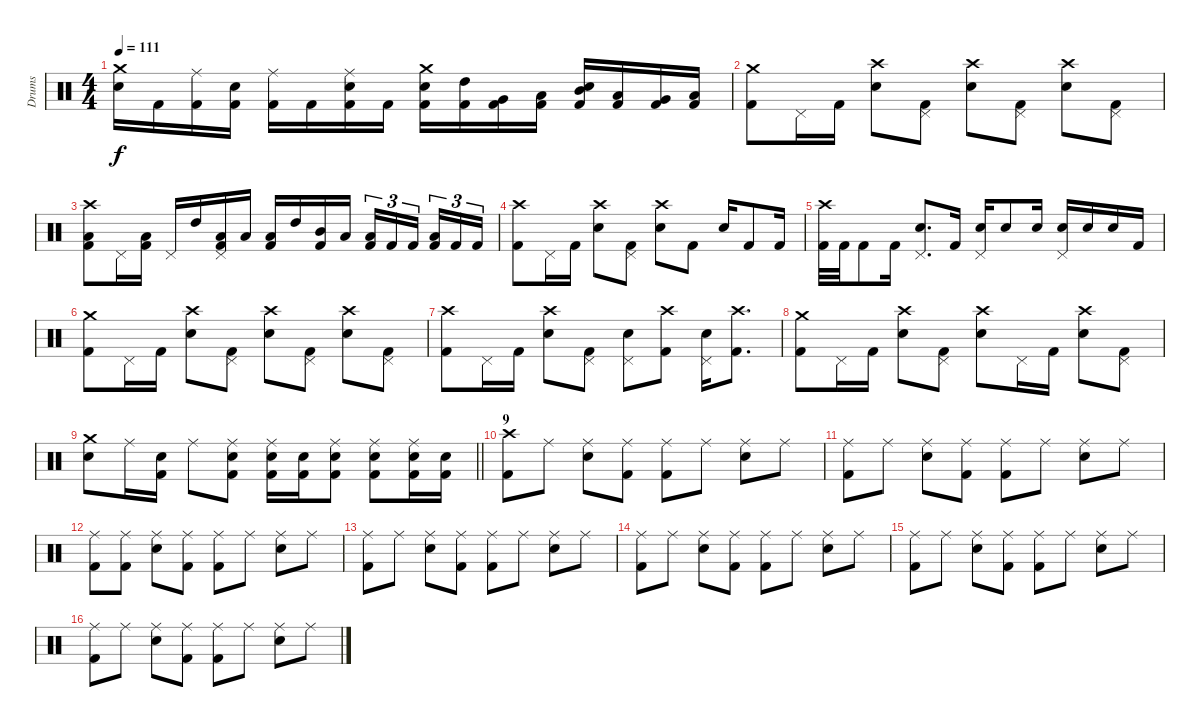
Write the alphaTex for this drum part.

\track ("Drums" "Drums") {instrument percussion}
\staff {score}
\articulation defaults
\ts (4 4)
\tempo 111
\clef neutral
\ks c
("Crash medium (hit)" "Snare (hit) 2").16{dy f} "Kick (hit) 2".16 ("Ride (middle)" "Kick (hit) 2").16 ("Snare (hit) 2" "Kick (hit) 2").16 ("Ride (middle)" "Kick (hit) 2").16 "Kick (hit) 2".16 ("Ride (middle)" "Snare (hit) 2" "Kick (hit) 2").16 "Kick (hit) 2".16 ("Crash medium (hit)" "Snare (hit) 2" "Kick (hit) 2").16 ("High Tom (hit)" "Kick (hit) 2").16 ("Very Low Tom (hit)" "Kick (hit) 2").16 ("Low Floor Tom (hit)" "Kick (hit) 2").16 ("Mid Tom (hit)" "Snare (hit) 2" "Kick (hit) 2").16 ("Low Tom (hit)" "Kick (hit) 2").16 ("Very Low Tom (hit)" "Kick (hit) 2").16 ("Low Floor Tom (hit)" "Kick (hit) 2").16 |
("Crash medium (hit)" "Kick (hit) 2").8 "Pedal Hi-Hat (hit)".16 "Kick (hit) 2".16 ("Crash high (hit)" "Snare (hit) 2").8 ("Pedal Hi-Hat (hit)" "Kick (hit) 2").8 ("Crash high (hit)" "Snare (hit) 2").8 ("Pedal Hi-Hat (hit)" "Kick (hit) 2").8 ("Crash high (hit)" "Snare (hit) 2").8 ("Pedal Hi-Hat (hit)" "Kick (hit) 2").8 |
("Crash high (hit)" "Low Floor Tom (hit)" "Kick (hit) 2").8 "Pedal Hi-Hat (hit)".16 ("Low Floor Tom (hit)" "Kick (hit) 2").16 "Pedal Hi-Hat (hit)".16 "High Tom (hit)".16 ("Pedal Hi-Hat (hit)" "Low Floor Tom (hit)" "Kick (hit) 2").16 "Low Tom (hit)".16 ("Low Floor Tom (hit)" "Kick (hit) 2").16 "High Tom (hit)".16 ("Mid Tom (hit)" "Kick (hit) 2").16 "Low Tom (hit)".16 ("Low Floor Tom (hit)" "Kick (hit) 2").16{tu (3 2)} "Kick (hit) 2".16{tu (3 2)} "Kick (hit) 2".16{tu (3 2) beam splitsecondary} ("Low Floor Tom (hit)" "Kick (hit) 2").16{tu (3 2)} "Kick (hit) 2".16{tu (3 2)} "Kick (hit) 2".16{tu (3 2)} |
("Crash high (hit)" "Kick (hit) 2").8 "Pedal Hi-Hat (hit)".16 "Kick (hit) 2".16 ("Crash high (hit)" "Snare (hit) 2").8 ("Pedal Hi-Hat (hit)" "Kick (hit) 2").8 ("Crash high (hit)" "Snare (hit) 2").8 "Kick (hit) 2".8 "Snare (hit) 2".16 "Kick (hit) 2".8 "Kick (hit) 2".16 |
("Crash high (hit)" "Kick (hit) 2").32 "Kick (hit) 2".32 "Kick (hit) 2".8 "Kick (hit) 2".16 ("Pedal Hi-Hat (hit)" "Snare (hit) 2").8{d} "Kick (hit) 2".16 ("Pedal Hi-Hat (hit)" "Snare (hit) 2").16 "Snare (hit) 2".8 "Snare (hit) 2".16 ("Pedal Hi-Hat (hit)" "Snare (hit) 2").16 "Snare (hit) 2".16 "Snare (hit) 2".16 "Kick (hit) 2".16 |
("Crash medium (hit)" "Kick (hit) 2").8 "Pedal Hi-Hat (hit)".16 "Kick (hit) 2".16 ("Crash high (hit)" "Snare (hit) 2").8 ("Pedal Hi-Hat (hit)" "Kick (hit) 2").8 ("Crash high (hit)" "Snare (hit) 2").8 ("Pedal Hi-Hat (hit)" "Kick (hit) 2").8 ("Crash high (hit)" "Snare (hit) 2").8 ("Pedal Hi-Hat (hit)" "Kick (hit) 2").8 |
("Crash high (hit)" "Kick (hit) 2").8 "Pedal Hi-Hat (hit)".16 "Kick (hit) 2".16 ("Crash high (hit)" "Snare (hit) 2").8 ("Pedal Hi-Hat (hit)" "Kick (hit) 2").8 ("Pedal Hi-Hat (hit)" "Snare (hit) 2").8 ("Crash high (hit)" "Kick (hit) 2").8 ("Pedal Hi-Hat (hit)" "Snare (hit) 2").16 ("Crash high (hit)" "Kick (hit) 2").8{d} |
("Crash medium (hit)" "Kick (hit) 2").8 "Pedal Hi-Hat (hit)".16 "Kick (hit) 2".16 ("Crash high (hit)" "Snare (hit) 2").8 ("Pedal Hi-Hat (hit)" "Kick (hit) 2").8 ("Crash high (hit)" "Snare (hit) 2").8 "Pedal Hi-Hat (hit)".16 "Kick (hit) 2".16 ("Crash high (hit)" "Snare (hit) 2").8 ("Pedal Hi-Hat (hit)" "Kick (hit) 2").8 |
\barLineRight lightlight
("Crash medium (hit)" "Snare (hit) 2").8 "Ride (middle)".16 ("Snare (hit) 2" "Kick (hit) 2").16 "Ride (middle)".8 ("Ride (middle)" "Snare (hit) 2" "Kick (hit) 2").8 ("Ride (middle)" "Snare (hit) 2" "Kick (hit) 2").16 ("Snare (hit) 2" "Kick (hit) 2").16 ("Ride (middle)" "Snare (hit) 2" "Kick (hit) 2").8 ("Ride (middle)" "Snare (hit) 2" "Kick (hit) 2").8 ("Ride (middle)" "Snare (hit) 2" "Kick (hit) 2").16 ("Snare (hit) 2" "Kick (hit) 2").16 |
\section ("" "9")
("Crash high (hit)" "Kick (hit) 2").8 "Ride (middle)".8 ("Ride (middle)" "Snare (hit) 2").8 ("Ride (middle)" "Kick (hit) 2").8 ("Ride (middle)" "Kick (hit) 2").8 "Ride (middle)".8 ("Ride (middle)" "Snare (hit) 2").8 "Ride (middle)".8 |
("Ride (middle)" "Kick (hit) 2").8 "Ride (middle)".8 ("Ride (middle)" "Snare (hit) 2").8 ("Ride (middle)" "Kick (hit) 2").8 ("Ride (middle)" "Kick (hit) 2").8 "Ride (middle)".8 ("Ride (middle)" "Snare (hit) 2").8 "Ride (middle)".8 |
("Ride (middle)" "Kick (hit) 2").8 ("Ride (middle)" "Kick (hit) 2").8 ("Ride (middle)" "Snare (hit) 2").8 ("Ride (middle)" "Kick (hit) 2").8 ("Ride (middle)" "Kick (hit) 2").8 "Ride (middle)".8 ("Ride (middle)" "Snare (hit) 2").8 "Ride (middle)".8 |
("Ride (middle)" "Kick (hit) 2").8 "Ride (middle)".8 ("Ride (middle)" "Snare (hit) 2").8 ("Ride (middle)" "Kick (hit) 2").8 ("Ride (middle)" "Kick (hit) 2").8 "Ride (middle)".8 ("Ride (middle)" "Snare (hit) 2").8 "Ride (middle)".8 |
("Ride (middle)" "Kick (hit) 2").8 "Ride (middle)".8 ("Ride (middle)" "Snare (hit) 2").8 ("Ride (middle)" "Kick (hit) 2").8 ("Ride (middle)" "Kick (hit) 2").8 "Ride (middle)".8 ("Ride (middle)" "Snare (hit) 2").8 "Ride (middle)".8 |
("Ride (middle)" "Kick (hit) 2").8 "Ride (middle)".8 ("Ride (middle)" "Snare (hit) 2").8 ("Ride (middle)" "Kick (hit) 2").8 ("Ride (middle)" "Kick (hit) 2").8 "Ride (middle)".8 ("Ride (middle)" "Snare (hit) 2").8 "Ride (middle)".8 |
("Ride (middle)" "Kick (hit) 2").8 "Ride (middle)".8 ("Ride (middle)" "Snare (hit) 2").8 ("Ride (middle)" "Kick (hit) 2").8 ("Ride (middle)" "Kick (hit) 2").8 "Ride (middle)".8 ("Ride (middle)" "Snare (hit) 2").8 "Ride (middle)".8
